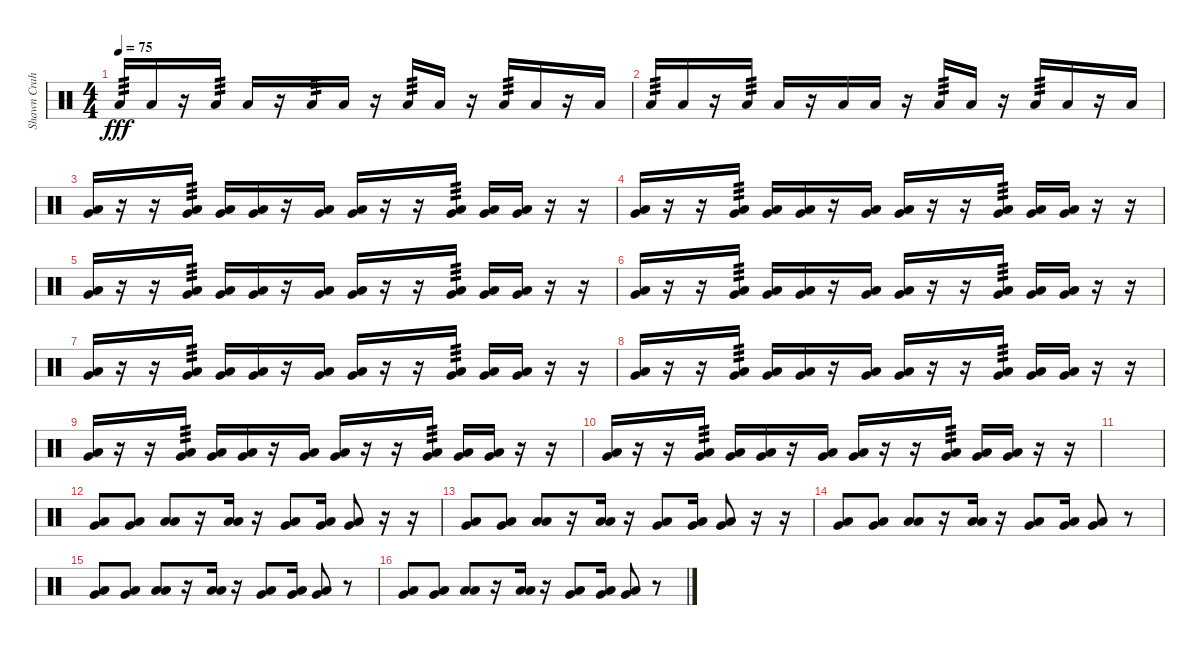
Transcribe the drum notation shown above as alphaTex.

\track ("Shawn Crahan" "Shawn Crah") {instrument percussion}
\staff {score}
\articulation defaults
\ts (4 4)
\tempo 75
\clef neutral
\ks c "Low Floor Tom (hit)".16{tp 3 dy fff} "Low Floor Tom (hit)".16
r.16 "Low Floor Tom (hit)".16{tp 3} "Low Floor Tom (hit)".16 r.16 "Low Floor Tom (hit)".16{tp 3} "Low Floor Tom (hit)".16 r.16 "Low Floor Tom (hit)".16{tp 3} "Low Floor Tom (hit)".16 r.16 "Low Floor Tom (hit)".16{tp 3} "Low Floor Tom (hit)".16 r.16 "Low Floor Tom (hit)".16 |
"Low Floor Tom (hit)".16{tp 3} "Low Floor Tom (hit)".16 r.16 "Low Floor Tom (hit)".16{tp 3} "Low Floor Tom (hit)".16 r.16 "Low Floor Tom (hit)".16 "Low Floor Tom (hit)".16 r.16 "Low Floor Tom (hit)".16{tp 3} "Low Floor Tom (hit)".16 r.16 "Low Floor Tom (hit)".16{tp 3} "Low Floor Tom (hit)".16 r.16 "Low Floor Tom (hit)".16 |
("Very Low Tom (hit)" "Low Floor Tom (hit)").16 r.16 r.16 ("Very Low Tom (hit)" "Low Floor Tom (hit)").16{tp 3} ("Very Low Tom (hit)" "Low Floor Tom (hit)").16 ("Very Low Tom (hit)" "Low Floor Tom (hit)").16 r.16 ("Very Low Tom (hit)" "Low Floor Tom (hit)").16 ("Very Low Tom (hit)" "Low Floor Tom (hit)").16 r.16 r.16 ("Very Low Tom (hit)" "Low Floor Tom (hit)").16{tp 3} ("Very Low Tom (hit)" "Low Floor Tom (hit)").16 ("Very Low Tom (hit)" "Low Floor Tom (hit)").16 r.16 r.16 |
("Very Low Tom (hit)" "Low Floor Tom (hit)").16 r.16 r.16 ("Very Low Tom (hit)" "Low Floor Tom (hit)").16{tp 3} ("Very Low Tom (hit)" "Low Floor Tom (hit)").16 ("Very Low Tom (hit)" "Low Floor Tom (hit)").16 r.16 ("Very Low Tom (hit)" "Low Floor Tom (hit)").16 ("Very Low Tom (hit)" "Low Floor Tom (hit)").16 r.16 r.16 ("Very Low Tom (hit)" "Low Floor Tom (hit)").16{tp 3} ("Very Low Tom (hit)" "Low Floor Tom (hit)").16 ("Very Low Tom (hit)" "Low Floor Tom (hit)").16 r.16 r.16 |
("Very Low Tom (hit)" "Low Floor Tom (hit)").16 r.16 r.16 ("Very Low Tom (hit)" "Low Floor Tom (hit)").16{tp 3} ("Very Low Tom (hit)" "Low Floor Tom (hit)").16 ("Very Low Tom (hit)" "Low Floor Tom (hit)").16 r.16 ("Very Low Tom (hit)" "Low Floor Tom (hit)").16 ("Very Low Tom (hit)" "Low Floor Tom (hit)").16 r.16 r.16 ("Very Low Tom (hit)" "Low Floor Tom (hit)").16{tp 3} ("Very Low Tom (hit)" "Low Floor Tom (hit)").16 ("Very Low Tom (hit)" "Low Floor Tom (hit)").16 r.16 r.16 |
("Very Low Tom (hit)" "Low Floor Tom (hit)").16 r.16 r.16 ("Very Low Tom (hit)" "Low Floor Tom (hit)").16{tp 3} ("Very Low Tom (hit)" "Low Floor Tom (hit)").16 ("Very Low Tom (hit)" "Low Floor Tom (hit)").16 r.16 ("Very Low Tom (hit)" "Low Floor Tom (hit)").16 ("Very Low Tom (hit)" "Low Floor Tom (hit)").16 r.16 r.16 ("Very Low Tom (hit)" "Low Floor Tom (hit)").16{tp 3} ("Very Low Tom (hit)" "Low Floor Tom (hit)").16 ("Very Low Tom (hit)" "Low Floor Tom (hit)").16 r.16 r.16 |
("Very Low Tom (hit)" "Low Floor Tom (hit)").16 r.16 r.16 ("Very Low Tom (hit)" "Low Floor Tom (hit)").16{tp 3} ("Very Low Tom (hit)" "Low Floor Tom (hit)").16 ("Very Low Tom (hit)" "Low Floor Tom (hit)").16 r.16 ("Very Low Tom (hit)" "Low Floor Tom (hit)").16 ("Very Low Tom (hit)" "Low Floor Tom (hit)").16 r.16 r.16 ("Very Low Tom (hit)" "Low Floor Tom (hit)").16{tp 3} ("Very Low Tom (hit)" "Low Floor Tom (hit)").16 ("Very Low Tom (hit)" "Low Floor Tom (hit)").16 r.16 r.16 |
("Very Low Tom (hit)" "Low Floor Tom (hit)").16 r.16 r.16 ("Very Low Tom (hit)" "Low Floor Tom (hit)").16{tp 3} ("Very Low Tom (hit)" "Low Floor Tom (hit)").16 ("Very Low Tom (hit)" "Low Floor Tom (hit)").16 r.16 ("Very Low Tom (hit)" "Low Floor Tom (hit)").16 ("Very Low Tom (hit)" "Low Floor Tom (hit)").16 r.16 r.16 ("Very Low Tom (hit)" "Low Floor Tom (hit)").16{tp 3} ("Very Low Tom (hit)" "Low Floor Tom (hit)").16 ("Very Low Tom (hit)" "Low Floor Tom (hit)").16 r.16 r.16 |
("Very Low Tom (hit)" "Low Floor Tom (hit)").16 r.16 r.16 ("Very Low Tom (hit)" "Low Floor Tom (hit)").16{tp 3} ("Very Low Tom (hit)" "Low Floor Tom (hit)").16 ("Very Low Tom (hit)" "Low Floor Tom (hit)").16 r.16 ("Very Low Tom (hit)" "Low Floor Tom (hit)").16 ("Very Low Tom (hit)" "Low Floor Tom (hit)").16 r.16 r.16 ("Very Low Tom (hit)" "Low Floor Tom (hit)").16{tp 3} ("Very Low Tom (hit)" "Low Floor Tom (hit)").16 ("Very Low Tom (hit)" "Low Floor Tom (hit)").16 r.16 r.16 |
("Very Low Tom (hit)" "Low Floor Tom (hit)").16 r.16 r.16 ("Very Low Tom (hit)" "Low Floor Tom (hit)").16{tp 3} ("Very Low Tom (hit)" "Low Floor Tom (hit)").16 ("Very Low Tom (hit)" "Low Floor Tom (hit)").16 r.16 ("Very Low Tom (hit)" "Low Floor Tom (hit)").16 ("Very Low Tom (hit)" "Low Floor Tom (hit)").16 r.16 r.16 ("Very Low Tom (hit)" "Low Floor Tom (hit)").16{tp 3} ("Very Low Tom (hit)" "Low Floor Tom (hit)").16 ("Very Low Tom (hit)" "Low Floor Tom (hit)").16 r.16 r.16 |
|
("Very Low Tom (hit)" "Low Floor Tom (hit)").8 ("Very Low Tom (hit)" "Low Floor Tom (hit)").8 ("Low Tom (hit)" "Low Tom (hit)").8 r.16 ("Low Tom (hit)" "Low Tom (hit)").16 r.16 ("Low Floor Tom (hit)" "Very Low Tom (hit)").8 ("Very Low Tom (hit)" "Low Floor Tom (hit)").16 ("Very Low Tom (hit)" "Low Floor Tom (hit)").8 r.16 r.16 |
("Very Low Tom (hit)" "Low Floor Tom (hit)").8 ("Very Low Tom (hit)" "Low Floor Tom (hit)").8 ("Low Tom (hit)" "Low Tom (hit)").8 r.16 ("Low Tom (hit)" "Low Tom (hit)").16 r.16 ("Low Floor Tom (hit)" "Very Low Tom (hit)").8 ("Very Low Tom (hit)" "Low Floor Tom (hit)").16 ("Very Low Tom (hit)" "Low Floor Tom (hit)").8 r.16 r.16 |
("Very Low Tom (hit)" "Low Floor Tom (hit)").8 ("Very Low Tom (hit)" "Low Floor Tom (hit)").8 ("Low Tom (hit)" "Low Tom (hit)").8 r.16 ("Low Tom (hit)" "Low Tom (hit)").16 r.16 ("Low Floor Tom (hit)" "Very Low Tom (hit)").8 ("Very Low Tom (hit)" "Low Floor Tom (hit)").16 ("Very Low Tom (hit)" "Low Floor Tom (hit)").8 r.8 |
("Very Low Tom (hit)" "Low Floor Tom (hit)").8 ("Very Low Tom (hit)" "Low Floor Tom (hit)").8 ("Low Tom (hit)" "Low Tom (hit)").8 r.16 ("Low Tom (hit)" "Low Tom (hit)").16 r.16 ("Low Floor Tom (hit)" "Very Low Tom (hit)").8 ("Very Low Tom (hit)" "Low Floor Tom (hit)").16 ("Very Low Tom (hit)" "Low Floor Tom (hit)").8 r.8 |
("Very Low Tom (hit)" "Low Floor Tom (hit)").8 ("Very Low Tom (hit)" "Low Floor Tom (hit)").8 ("Low Tom (hit)" "Low Tom (hit)").8 r.16 ("Low Tom (hit)" "Low Tom (hit)").16 r.16 ("Low Floor Tom (hit)" "Very Low Tom (hit)").8 ("Very Low Tom (hit)" "Low Floor Tom (hit)").16 ("Very Low Tom (hit)" "Low Floor Tom (hit)").8 r.8
